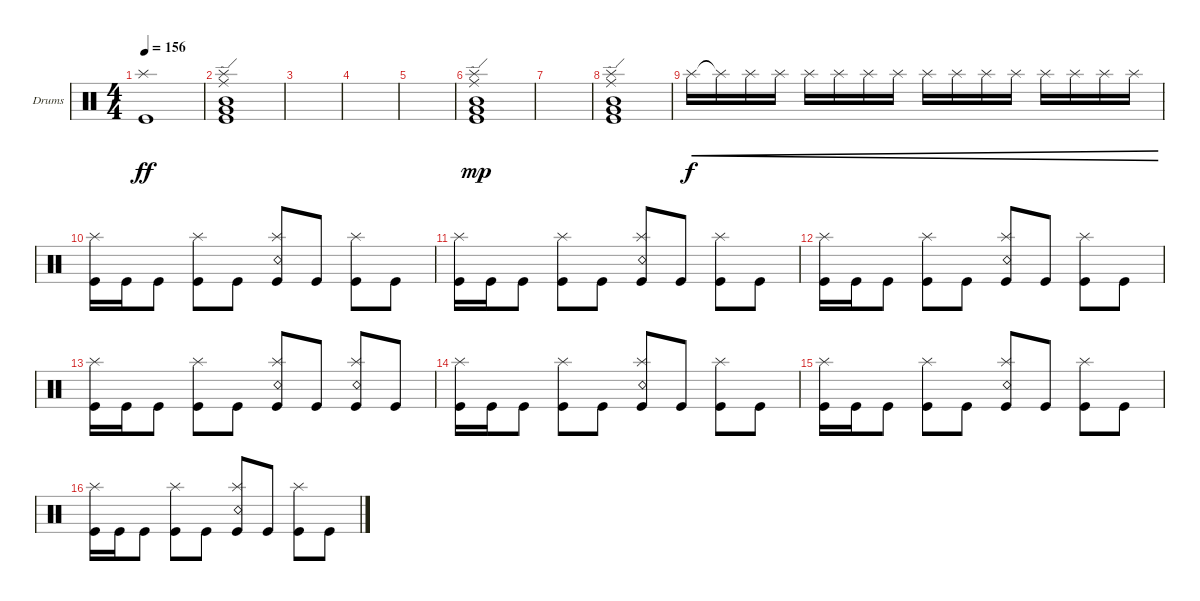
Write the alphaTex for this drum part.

\defaultSystemsLayout 4
\bracketExtendMode groupsimilarinstruments
\firstSystemTrackNameOrientation horizontal
\otherSystemsTrackNameOrientation horizontal
\track ("Drumkit" "Drums") {instrument percussion}
\staff {score}
\articulation defaults
\ts (4 4)
\tempo 156
\clef neutral
\ks c
("Kick (hit)" "Splash (hit)").1{dy ff} |
("Kick (hit)" "Mid Tom (hit)" "Very Low Tom (hit)" "Ride (edge)" "Splash (hit)").1 |
|
|
|
("Kick (hit)" "Mid Tom (hit)" "Very Low Tom (hit)" "Ride (edge)" "Splash (hit)").1{dy mp} |
|
("Kick (hit)" "Mid Tom (hit)" "Very Low Tom (hit)" "Ride (edge)" "Splash (hit)").1 |
"Splash (hit)".16{cre dy f} "Splash (hit)"{t}.16{cre} "Splash (hit)".16{cre} "Splash (hit)".16{cre} "Splash (hit)".16{cre} "Splash (hit)".16{cre} "Splash (hit)".16{cre} "Splash (hit)".16{cre} "Splash (hit)".16{cre} "Splash (hit)".16{cre} "Splash (hit)".16{cre} "Splash (hit)".16{cre} "Splash (hit)".16{cre} "Splash (hit)".16{cre} "Splash (hit)".16{cre} "Splash (hit)".16{cre} |
("Kick (hit)" "Splash (hit)").16 "Kick (hit)".16 "Kick (hit)".8 ("Kick (hit)" "Splash (hit)").8 "Kick (hit)".8 ("Kick (hit)" "Snare (rim shot)" "Splash (hit)").8 "Kick (hit)".8 ("Kick (hit)" "Splash (hit)").8 "Kick (hit)".8 |
("Kick (hit)" "Splash (hit)").16 "Kick (hit)".16 "Kick (hit)".8 ("Kick (hit)" "Splash (hit)").8 "Kick (hit)".8 ("Kick (hit)" "Snare (rim shot)" "Splash (hit)").8 "Kick (hit)".8 ("Kick (hit)" "Splash (hit)").8 "Kick (hit)".8 |
("Kick (hit)" "Splash (hit)").16 "Kick (hit)".16 "Kick (hit)".8 ("Kick (hit)" "Splash (hit)").8 "Kick (hit)".8 ("Kick (hit)" "Snare (rim shot)" "Splash (hit)").8 "Kick (hit)".8 ("Kick (hit)" "Splash (hit)").8 "Kick (hit)".8 |
("Kick (hit)" "Splash (hit)").16 "Kick (hit)".16 "Kick (hit)".8 ("Kick (hit)" "Splash (hit)").8 "Kick (hit)".8 ("Kick (hit)" "Snare (rim shot)" "Splash (hit)").8 "Kick (hit)".8 ("Kick (hit)" "Snare (rim shot)" "Splash (hit)").8 "Kick (hit)".8 |
("Kick (hit)" "Splash (hit)").16 "Kick (hit)".16 "Kick (hit)".8 ("Kick (hit)" "Splash (hit)").8 "Kick (hit)".8 ("Kick (hit)" "Snare (rim shot)" "Splash (hit)").8 "Kick (hit)".8 ("Kick (hit)" "Splash (hit)").8 "Kick (hit)".8 |
("Kick (hit)" "Splash (hit)").16 "Kick (hit)".16 "Kick (hit)".8 ("Kick (hit)" "Splash (hit)").8 "Kick (hit)".8 ("Kick (hit)" "Snare (rim shot)" "Splash (hit)").8 "Kick (hit)".8 ("Kick (hit)" "Splash (hit)").8 "Kick (hit)".8 |
("Kick (hit)" "Splash (hit)").16 "Kick (hit)".16 "Kick (hit)".8 ("Kick (hit)" "Splash (hit)").8 "Kick (hit)".8 ("Kick (hit)" "Snare (rim shot)" "Splash (hit)").8 "Kick (hit)".8 ("Kick (hit)" "Splash (hit)").8 "Kick (hit)".8
